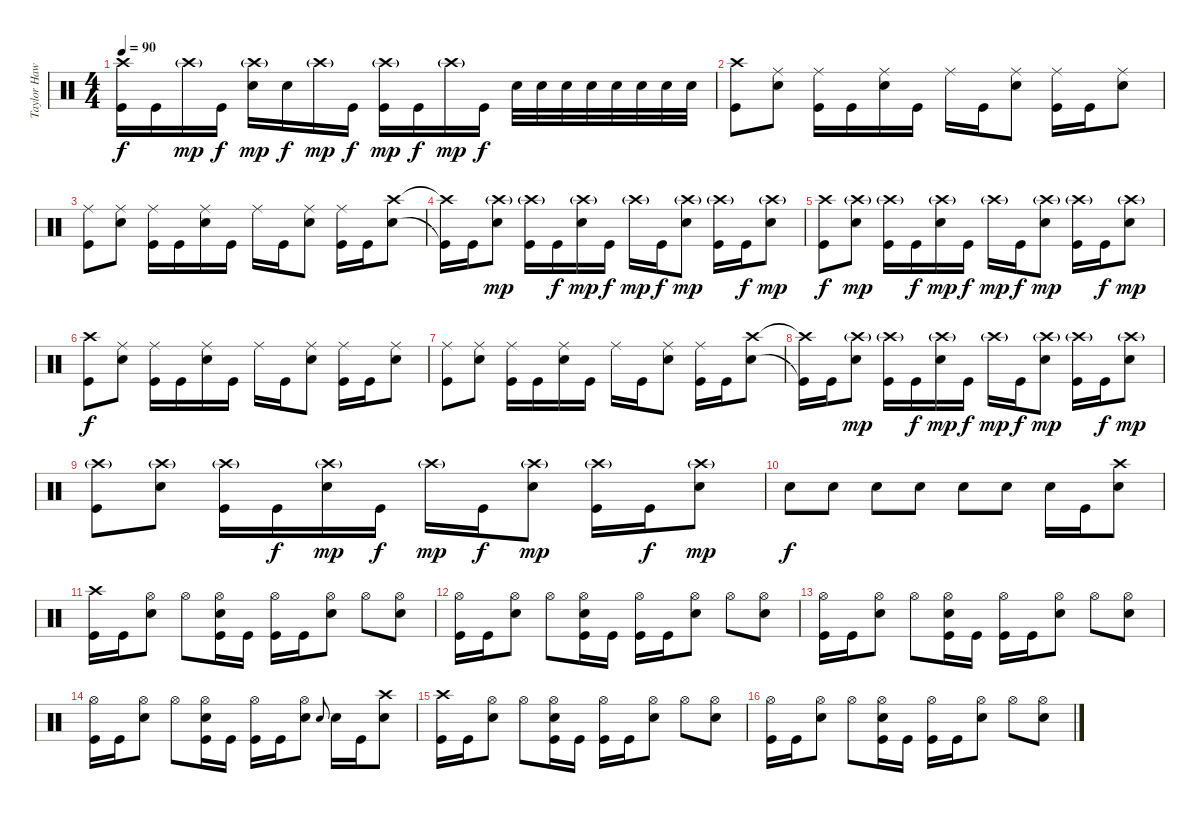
\track ("Taylor Hawkins - Drums" "Taylor Haw") {instrument percussion}
\staff {score}
\articulation defaults
\ts (4 4)
\tempo 90
\clef neutral
\ks c
("Crash high (hit)" "Kick (hit)").16{dy f} "Kick (hit)".16 "Crash high (hit)"{g}.16{dy mp} "Kick (hit)".16{dy f} ("Crash high (hit)"{g} "Electric Snare (hit)").16{dy mp} "Electric Snare (hit)".16{dy f} "Crash high (hit)"{g}.16{dy mp} "Kick (hit)".16{dy f} ("Crash high (hit)"{g} "Kick (hit)").16{dy mp} "Kick (hit)".16{dy f} "Crash high (hit)"{g}.16{dy mp} "Kick (hit)".16{dy f} "Electric Snare (hit)".32 "Electric Snare (hit)".32 "Electric Snare (hit)".32 "Electric Snare (hit)".32 "Electric Snare (hit)".32 "Electric Snare (hit)".32 "Electric Snare (hit)".32 "Electric Snare (hit)".32 |
("Crash high (hit)" "Kick (hit)").8 ("Ride (middle)" "Electric Snare (hit)").8 ("Ride (middle)" "Kick (hit)").16 "Kick (hit)".16 ("Ride (middle)" "Electric Snare (hit)").16 "Kick (hit)".16 "Ride (middle)".16 "Kick (hit)".16 ("Ride (middle)" "Electric Snare (hit)").8 ("Ride (middle)" "Kick (hit)").16 "Kick (hit)".16 ("Ride (middle)" "Snare (hit) 2").8 |
("Ride (middle)" "Kick (hit)").8 ("Ride (middle)" "Electric Snare (hit)").8 ("Ride (middle)" "Kick (hit)").16 "Kick (hit)".16 ("Ride (middle)" "Electric Snare (hit)").16 "Kick (hit)".16 "Ride (middle)".16 "Kick (hit)".16 ("Ride (middle)" "Electric Snare (hit)").8 ("Ride (middle)" "Kick (hit)").16 "Kick (hit)".16 ("Crash high (hit)" "Snare (hit) 2").8 |
("Crash high (hit)"{t} "Kick (hit)"{t}).16 "Kick (hit)".16 ("Crash high (hit)"{g} "Electric Snare (hit)").8{dy mp} ("Crash high (hit)"{g} "Kick (hit)").16 "Kick (hit)".16{dy f} ("Crash high (hit)"{g} "Electric Snare (hit)").16{dy mp} "Kick (hit)".16{dy f} "Crash high (hit)"{g}.16{dy mp} "Kick (hit)".16{dy f} ("Crash high (hit)"{g} "Electric Snare (hit)").8{dy mp} ("Crash high (hit)"{g} "Kick (hit)").16 "Kick (hit)".16{dy f} ("Crash high (hit)"{g} "Snare (hit) 2").8{dy mp} |
("Crash high (hit)" "Kick (hit)").8{dy f} ("Crash high (hit)"{g} "Electric Snare (hit)").8{dy mp} ("Crash high (hit)"{g} "Kick (hit)").16 "Kick (hit)".16{dy f} ("Crash high (hit)"{g} "Electric Snare (hit)").16{dy mp} "Kick (hit)".16{dy f} "Crash high (hit)"{g}.16{dy mp} "Kick (hit)".16{dy f} ("Crash high (hit)"{g} "Electric Snare (hit)").8{dy mp} ("Crash high (hit)"{g} "Kick (hit)").16 "Kick (hit)".16{dy f} ("Crash high (hit)"{g} "Electric Snare (hit)").8{dy mp} |
("Crash high (hit)" "Kick (hit)").8{dy f} ("Ride (middle)" "Electric Snare (hit)").8 ("Ride (middle)" "Kick (hit)").16 "Kick (hit)".16 ("Ride (middle)" "Electric Snare (hit)").16 "Kick (hit)".16 "Ride (middle)".16 "Kick (hit)".16 ("Ride (middle)" "Electric Snare (hit)").8 ("Ride (middle)" "Kick (hit)").16 "Kick (hit)".16 ("Ride (middle)" "Snare (hit) 2").8 |
("Ride (middle)" "Kick (hit)").8 ("Ride (middle)" "Electric Snare (hit)").8 ("Ride (middle)" "Kick (hit)").16 "Kick (hit)".16 ("Ride (middle)" "Electric Snare (hit)").16 "Kick (hit)".16 "Ride (middle)".16 "Kick (hit)".16 ("Ride (middle)" "Electric Snare (hit)").8 ("Ride (middle)" "Kick (hit)").16 "Kick (hit)".16 ("Crash high (hit)" "Snare (hit) 2").8 |
("Crash high (hit)"{t} "Kick (hit)"{t}).16 "Kick (hit)".16 ("Crash high (hit)"{g} "Electric Snare (hit)").8{dy mp} ("Crash high (hit)"{g} "Kick (hit)").16 "Kick (hit)".16{dy f} ("Crash high (hit)"{g} "Electric Snare (hit)").16{dy mp} "Kick (hit)".16{dy f} "Crash high (hit)"{g}.16{dy mp} "Kick (hit)".16{dy f} ("Crash high (hit)"{g} "Electric Snare (hit)").8{dy mp} ("Crash high (hit)"{g} "Kick (hit)").16 "Kick (hit)".16{dy f} ("Crash high (hit)"{g} "Snare (hit) 2").8{dy mp} |
("Crash high (hit)"{g} "Kick (hit)").8 ("Crash high (hit)"{g} "Electric Snare (hit)").8 ("Crash high (hit)"{g} "Kick (hit)").16 "Kick (hit)".16{dy f} ("Crash high (hit)"{g} "Electric Snare (hit)").16{dy mp} "Kick (hit)".16{dy f} "Crash high (hit)"{g}.16{dy mp} "Kick (hit)".16{dy f} ("Crash high (hit)"{g} "Electric Snare (hit)").8{dy mp} ("Crash high (hit)"{g} "Kick (hit)").16 "Kick (hit)".16{dy f} ("Crash high (hit)"{g} "Electric Snare (hit)").8{dy mp} |
"Electric Snare (hit)".8{dy f} "Electric Snare (hit)".8 "Electric Snare (hit)".8 "Electric Snare (hit)".8 "Electric Snare (hit)".8 "Electric Snare (hit)".8 "Electric Snare (hit)".16 "Kick (hit)".16 ("Crash high (hit)" "Electric Snare (hit)").8 |
("Crash high (hit)" "Kick (hit)").16 "Kick (hit)".16 ("Hi-Hat (open)" "Electric Snare (hit)").8 "Hi-Hat (open)".8 ("Hi-Hat (open)" "Electric Snare (hit)" "Kick (hit)").16 "Kick (hit)".16 ("Hi-Hat (open)" "Kick (hit)").16 "Kick (hit)".16 ("Hi-Hat (open)" "Electric Snare (hit)").8 "Hi-Hat (open)".8 ("Hi-Hat (open)" "Electric Snare (hit)").8 |
("Hi-Hat (open)" "Kick (hit)").16 "Kick (hit)".16 ("Hi-Hat (open)" "Electric Snare (hit)").8 "Hi-Hat (open)".8 ("Hi-Hat (open)" "Electric Snare (hit)" "Kick (hit)").16 "Kick (hit)".16 ("Hi-Hat (open)" "Kick (hit)").16 "Kick (hit)".16 ("Hi-Hat (open)" "Electric Snare (hit)").8 "Hi-Hat (open)".8 ("Hi-Hat (open)" "Electric Snare (hit)").8 |
("Hi-Hat (open)" "Kick (hit)").16 "Kick (hit)".16 ("Hi-Hat (open)" "Electric Snare (hit)").8 "Hi-Hat (open)".8 ("Hi-Hat (open)" "Electric Snare (hit)" "Kick (hit)").16 "Kick (hit)".16 ("Hi-Hat (open)" "Kick (hit)").16 "Kick (hit)".16 ("Hi-Hat (open)" "Electric Snare (hit)").8 "Hi-Hat (open)".8 ("Hi-Hat (open)" "Electric Snare (hit)").8 |
("Hi-Hat (open)" "Kick (hit)").16 "Kick (hit)".16 ("Hi-Hat (open)" "Electric Snare (hit)").8 "Hi-Hat (open)".8 ("Hi-Hat (open)" "Electric Snare (hit)" "Kick (hit)").16 "Kick (hit)".16 ("Hi-Hat (open)" "Kick (hit)").16 "Kick (hit)".16 ("Hi-Hat (open)" "Electric Snare (hit)").8 "Electric Snare (hit)".8{gr onbeat} "Electric Snare (hit)".16 "Kick (hit)".16 ("Crash high (hit)" "Electric Snare (hit)").8 |
("Crash high (hit)" "Kick (hit)").16 "Kick (hit)".16 ("Hi-Hat (open)" "Electric Snare (hit)").8 "Hi-Hat (open)".8 ("Hi-Hat (open)" "Electric Snare (hit)" "Kick (hit)").16 "Kick (hit)".16 ("Hi-Hat (open)" "Kick (hit)").16 "Kick (hit)".16 ("Hi-Hat (open)" "Electric Snare (hit)").8 "Hi-Hat (open)".8 ("Hi-Hat (open)" "Electric Snare (hit)").8 |
("Hi-Hat (open)" "Kick (hit)").16 "Kick (hit)".16 ("Hi-Hat (open)" "Electric Snare (hit)").8 "Hi-Hat (open)".8 ("Hi-Hat (open)" "Electric Snare (hit)" "Kick (hit)").16 "Kick (hit)".16 ("Hi-Hat (open)" "Kick (hit)").16 "Kick (hit)".16 ("Hi-Hat (open)" "Electric Snare (hit)").8 "Hi-Hat (open)".8 ("Hi-Hat (open)" "Electric Snare (hit)").8
